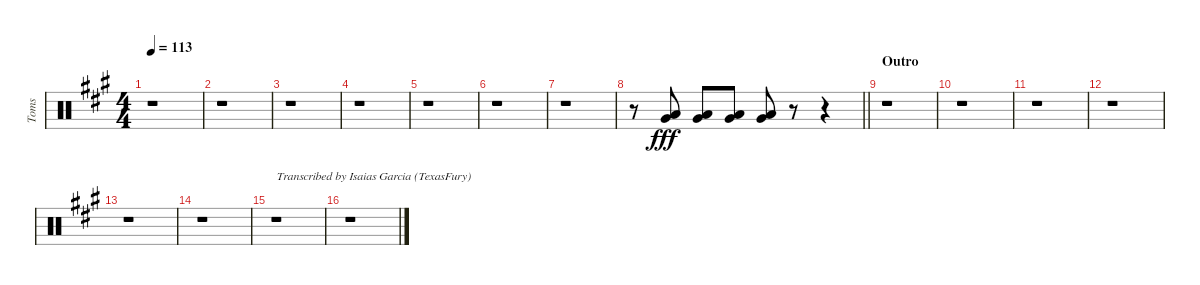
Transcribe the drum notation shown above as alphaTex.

\track ("Toms" "Toms") {instrument percussion}
\staff {score}
\articulation defaults
\ts (4 4)
\tempo 113
\clef neutral
\ks f#minor
r.1{dy fff} |
r.1 |
r.1 |
r.1 |
r.1 |
r.1 |
r.1 |
\barLineRight lightlight
r.8{volume 16} ("Low Tom (hit)" "Very Low Tom (hit)").8{beam Up} ("Low Tom (hit)" "Very Low Tom (hit)").8{beam Up} ("Low Tom (hit)" "Very Low Tom (hit)").8{beam Up} ("Low Tom (hit)" "Very Low Tom (hit)").8{beam Up} r.8{volume 0} r.4{beam Up} |
\section ("" "Outro")
r.1 |
r.1 |
r.1 |
r.1 |
r.1 |
r.1 |
r.1{txt "Transcribed by Isaias Garcia (TexasFury)"} |
r.1
